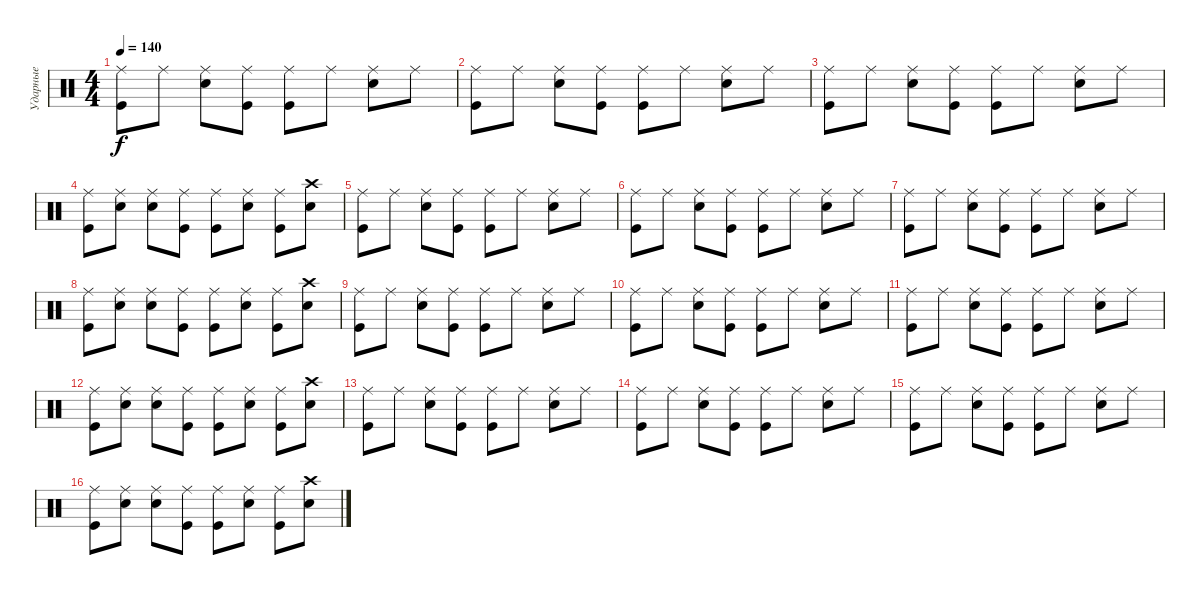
\track ("Ударные" "Ударные") {instrument percussion}
\staff {score}
\articulation defaults
\ts (4 4)
\tempo 140
\clef neutral
\ks c
("Kick (hit)" "Ride (middle)").8{dy f} "Ride (middle)".8 ("Snare (hit) 2" "Ride (middle)").8 ("Kick (hit)" "Ride (middle)").8 ("Kick (hit)" "Ride (middle)").8 "Ride (middle)".8 ("Snare (hit) 2" "Ride (middle)").8 "Ride (middle)".8 |
("Kick (hit)" "Ride (middle)").8 "Ride (middle)".8 ("Snare (hit) 2" "Ride (middle)").8 ("Kick (hit)" "Ride (middle)").8 ("Kick (hit)" "Ride (middle)").8 "Ride (middle)".8 ("Snare (hit) 2" "Ride (middle)").8 "Ride (middle)".8 |
("Kick (hit)" "Ride (middle)").8 "Ride (middle)".8 ("Snare (hit) 2" "Ride (middle)").8 ("Kick (hit)" "Ride (middle)").8 ("Kick (hit)" "Ride (middle)").8 "Ride (middle)".8 ("Snare (hit) 2" "Ride (middle)").8 "Ride (middle)".8 |
("Kick (hit)" "Ride (middle)").8 ("Snare (hit) 2" "Ride (middle)").8 ("Snare (hit) 2" "Ride (middle)").8 ("Kick (hit)" "Ride (middle)").8 ("Kick (hit)" "Ride (middle)").8 ("Snare (hit) 2" "Ride (middle)").8 ("Kick (hit)" "Ride (middle)").8 ("Crash high (hit)" "Snare (hit) 2").8 |
("Kick (hit)" "Ride (middle)").8 "Ride (middle)".8 ("Snare (hit) 2" "Ride (middle)").8 ("Kick (hit)" "Ride (middle)").8 ("Kick (hit)" "Ride (middle)").8 "Ride (middle)".8 ("Snare (hit) 2" "Ride (middle)").8 "Ride (middle)".8 |
("Kick (hit)" "Ride (middle)").8 "Ride (middle)".8 ("Snare (hit) 2" "Ride (middle)").8 ("Kick (hit)" "Ride (middle)").8 ("Kick (hit)" "Ride (middle)").8 "Ride (middle)".8 ("Snare (hit) 2" "Ride (middle)").8 "Ride (middle)".8 |
("Kick (hit)" "Ride (middle)").8 "Ride (middle)".8 ("Snare (hit) 2" "Ride (middle)").8 ("Kick (hit)" "Ride (middle)").8 ("Kick (hit)" "Ride (middle)").8 "Ride (middle)".8 ("Snare (hit) 2" "Ride (middle)").8 "Ride (middle)".8 |
("Kick (hit)" "Ride (middle)").8 ("Snare (hit) 2" "Ride (middle)").8 ("Snare (hit) 2" "Ride (middle)").8 ("Kick (hit)" "Ride (middle)").8 ("Kick (hit)" "Ride (middle)").8 ("Snare (hit) 2" "Ride (middle)").8 ("Kick (hit)" "Ride (middle)").8 ("Crash high (hit)" "Snare (hit) 2").8 |
("Kick (hit)" "Ride (middle)").8 "Ride (middle)".8 ("Snare (hit) 2" "Ride (middle)").8 ("Kick (hit)" "Ride (middle)").8 ("Kick (hit)" "Ride (middle)").8 "Ride (middle)".8 ("Snare (hit) 2" "Ride (middle)").8 "Ride (middle)".8 |
("Kick (hit)" "Ride (middle)").8 "Ride (middle)".8 ("Snare (hit) 2" "Ride (middle)").8 ("Kick (hit)" "Ride (middle)").8 ("Kick (hit)" "Ride (middle)").8 "Ride (middle)".8 ("Snare (hit) 2" "Ride (middle)").8 "Ride (middle)".8 |
("Kick (hit)" "Ride (middle)").8 "Ride (middle)".8 ("Snare (hit) 2" "Ride (middle)").8 ("Kick (hit)" "Ride (middle)").8 ("Kick (hit)" "Ride (middle)").8 "Ride (middle)".8 ("Snare (hit) 2" "Ride (middle)").8 "Ride (middle)".8 |
("Kick (hit)" "Ride (middle)").8 ("Snare (hit) 2" "Ride (middle)").8 ("Snare (hit) 2" "Ride (middle)").8 ("Kick (hit)" "Ride (middle)").8 ("Kick (hit)" "Ride (middle)").8 ("Snare (hit) 2" "Ride (middle)").8 ("Kick (hit)" "Ride (middle)").8 ("Crash high (hit)" "Snare (hit) 2").8 |
("Kick (hit)" "Ride (middle)").8 "Ride (middle)".8 ("Snare (hit) 2" "Ride (middle)").8 ("Kick (hit)" "Ride (middle)").8 ("Kick (hit)" "Ride (middle)").8 "Ride (middle)".8 ("Snare (hit) 2" "Ride (middle)").8 "Ride (middle)".8 |
("Kick (hit)" "Ride (middle)").8 "Ride (middle)".8 ("Snare (hit) 2" "Ride (middle)").8 ("Kick (hit)" "Ride (middle)").8 ("Kick (hit)" "Ride (middle)").8 "Ride (middle)".8 ("Snare (hit) 2" "Ride (middle)").8 "Ride (middle)".8 |
("Kick (hit)" "Ride (middle)").8 "Ride (middle)".8 ("Snare (hit) 2" "Ride (middle)").8 ("Kick (hit)" "Ride (middle)").8 ("Kick (hit)" "Ride (middle)").8 "Ride (middle)".8 ("Snare (hit) 2" "Ride (middle)").8 "Ride (middle)".8 |
("Kick (hit)" "Ride (middle)").8 ("Snare (hit) 2" "Ride (middle)").8 ("Snare (hit) 2" "Ride (middle)").8 ("Kick (hit)" "Ride (middle)").8 ("Kick (hit)" "Ride (middle)").8 ("Snare (hit) 2" "Ride (middle)").8 ("Kick (hit)" "Ride (middle)").8 ("Crash high (hit)" "Snare (hit) 2").8
